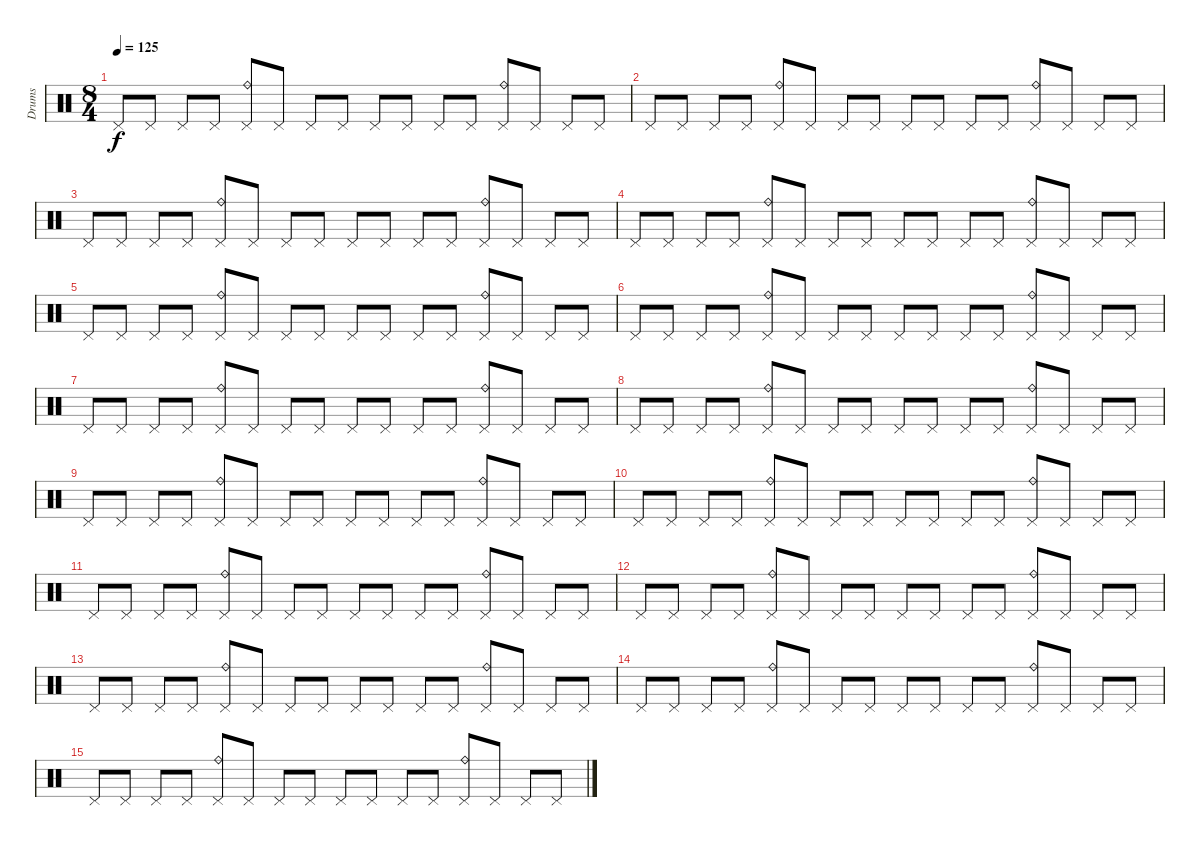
\track ("Drums" "Drums") {instrument percussion}
\staff {score}
\articulation defaults
\ts (8 4)
\tempo 125
\clef neutral
\ks c "Pedal Hi-Hat (hit)".8{dy f} "Pedal Hi-Hat (hit)".8 "Pedal Hi-Hat (hit)".8 "Pedal Hi-Hat (hit)".8
("Pedal Hi-Hat (hit)" "Ride (bell)").8 "Pedal Hi-Hat (hit)".8 "Pedal Hi-Hat (hit)".8 "Pedal Hi-Hat (hit)".8 "Pedal Hi-Hat (hit)".8 "Pedal Hi-Hat (hit)".8 "Pedal Hi-Hat (hit)".8 "Pedal Hi-Hat (hit)".8 ("Pedal Hi-Hat (hit)" "Ride (bell)").8 "Pedal Hi-Hat (hit)".8 "Pedal Hi-Hat (hit)".8 "Pedal Hi-Hat (hit)".8 |
"Pedal Hi-Hat (hit)".8 "Pedal Hi-Hat (hit)".8 "Pedal Hi-Hat (hit)".8 "Pedal Hi-Hat (hit)".8 ("Pedal Hi-Hat (hit)" "Ride (bell)").8 "Pedal Hi-Hat (hit)".8 "Pedal Hi-Hat (hit)".8 "Pedal Hi-Hat (hit)".8 "Pedal Hi-Hat (hit)".8 "Pedal Hi-Hat (hit)".8 "Pedal Hi-Hat (hit)".8 "Pedal Hi-Hat (hit)".8 ("Pedal Hi-Hat (hit)" "Ride (bell)").8 "Pedal Hi-Hat (hit)".8 "Pedal Hi-Hat (hit)".8 "Pedal Hi-Hat (hit)".8 |
"Pedal Hi-Hat (hit)".8 "Pedal Hi-Hat (hit)".8 "Pedal Hi-Hat (hit)".8 "Pedal Hi-Hat (hit)".8 ("Pedal Hi-Hat (hit)" "Ride (bell)").8 "Pedal Hi-Hat (hit)".8 "Pedal Hi-Hat (hit)".8 "Pedal Hi-Hat (hit)".8 "Pedal Hi-Hat (hit)".8 "Pedal Hi-Hat (hit)".8 "Pedal Hi-Hat (hit)".8 "Pedal Hi-Hat (hit)".8 ("Pedal Hi-Hat (hit)" "Ride (bell)").8 "Pedal Hi-Hat (hit)".8 "Pedal Hi-Hat (hit)".8 "Pedal Hi-Hat (hit)".8 |
"Pedal Hi-Hat (hit)".8 "Pedal Hi-Hat (hit)".8 "Pedal Hi-Hat (hit)".8 "Pedal Hi-Hat (hit)".8 ("Pedal Hi-Hat (hit)" "Ride (bell)").8 "Pedal Hi-Hat (hit)".8 "Pedal Hi-Hat (hit)".8 "Pedal Hi-Hat (hit)".8 "Pedal Hi-Hat (hit)".8 "Pedal Hi-Hat (hit)".8 "Pedal Hi-Hat (hit)".8 "Pedal Hi-Hat (hit)".8 ("Pedal Hi-Hat (hit)" "Ride (bell)").8 "Pedal Hi-Hat (hit)".8 "Pedal Hi-Hat (hit)".8 "Pedal Hi-Hat (hit)".8 |
"Pedal Hi-Hat (hit)".8 "Pedal Hi-Hat (hit)".8 "Pedal Hi-Hat (hit)".8 "Pedal Hi-Hat (hit)".8 ("Pedal Hi-Hat (hit)" "Ride (bell)").8 "Pedal Hi-Hat (hit)".8 "Pedal Hi-Hat (hit)".8 "Pedal Hi-Hat (hit)".8 "Pedal Hi-Hat (hit)".8 "Pedal Hi-Hat (hit)".8 "Pedal Hi-Hat (hit)".8 "Pedal Hi-Hat (hit)".8 ("Pedal Hi-Hat (hit)" "Ride (bell)").8 "Pedal Hi-Hat (hit)".8 "Pedal Hi-Hat (hit)".8 "Pedal Hi-Hat (hit)".8 |
"Pedal Hi-Hat (hit)".8 "Pedal Hi-Hat (hit)".8 "Pedal Hi-Hat (hit)".8 "Pedal Hi-Hat (hit)".8 ("Pedal Hi-Hat (hit)" "Ride (bell)").8 "Pedal Hi-Hat (hit)".8 "Pedal Hi-Hat (hit)".8 "Pedal Hi-Hat (hit)".8 "Pedal Hi-Hat (hit)".8 "Pedal Hi-Hat (hit)".8 "Pedal Hi-Hat (hit)".8 "Pedal Hi-Hat (hit)".8 ("Pedal Hi-Hat (hit)" "Ride (bell)").8 "Pedal Hi-Hat (hit)".8 "Pedal Hi-Hat (hit)".8 "Pedal Hi-Hat (hit)".8 |
"Pedal Hi-Hat (hit)".8 "Pedal Hi-Hat (hit)".8 "Pedal Hi-Hat (hit)".8 "Pedal Hi-Hat (hit)".8 ("Pedal Hi-Hat (hit)" "Ride (bell)").8 "Pedal Hi-Hat (hit)".8 "Pedal Hi-Hat (hit)".8 "Pedal Hi-Hat (hit)".8 "Pedal Hi-Hat (hit)".8 "Pedal Hi-Hat (hit)".8 "Pedal Hi-Hat (hit)".8 "Pedal Hi-Hat (hit)".8 ("Pedal Hi-Hat (hit)" "Ride (bell)").8 "Pedal Hi-Hat (hit)".8 "Pedal Hi-Hat (hit)".8 "Pedal Hi-Hat (hit)".8 |
"Pedal Hi-Hat (hit)".8 "Pedal Hi-Hat (hit)".8 "Pedal Hi-Hat (hit)".8 "Pedal Hi-Hat (hit)".8 ("Pedal Hi-Hat (hit)" "Ride (bell)").8 "Pedal Hi-Hat (hit)".8 "Pedal Hi-Hat (hit)".8 "Pedal Hi-Hat (hit)".8 "Pedal Hi-Hat (hit)".8 "Pedal Hi-Hat (hit)".8 "Pedal Hi-Hat (hit)".8 "Pedal Hi-Hat (hit)".8 ("Pedal Hi-Hat (hit)" "Ride (bell)").8 "Pedal Hi-Hat (hit)".8 "Pedal Hi-Hat (hit)".8 "Pedal Hi-Hat (hit)".8 |
"Pedal Hi-Hat (hit)".8 "Pedal Hi-Hat (hit)".8 "Pedal Hi-Hat (hit)".8 "Pedal Hi-Hat (hit)".8 ("Pedal Hi-Hat (hit)" "Ride (bell)").8 "Pedal Hi-Hat (hit)".8 "Pedal Hi-Hat (hit)".8 "Pedal Hi-Hat (hit)".8 "Pedal Hi-Hat (hit)".8 "Pedal Hi-Hat (hit)".8 "Pedal Hi-Hat (hit)".8 "Pedal Hi-Hat (hit)".8 ("Pedal Hi-Hat (hit)" "Ride (bell)").8 "Pedal Hi-Hat (hit)".8 "Pedal Hi-Hat (hit)".8 "Pedal Hi-Hat (hit)".8 |
"Pedal Hi-Hat (hit)".8 "Pedal Hi-Hat (hit)".8 "Pedal Hi-Hat (hit)".8 "Pedal Hi-Hat (hit)".8 ("Pedal Hi-Hat (hit)" "Ride (bell)").8 "Pedal Hi-Hat (hit)".8 "Pedal Hi-Hat (hit)".8 "Pedal Hi-Hat (hit)".8 "Pedal Hi-Hat (hit)".8 "Pedal Hi-Hat (hit)".8 "Pedal Hi-Hat (hit)".8 "Pedal Hi-Hat (hit)".8 ("Pedal Hi-Hat (hit)" "Ride (bell)").8 "Pedal Hi-Hat (hit)".8 "Pedal Hi-Hat (hit)".8 "Pedal Hi-Hat (hit)".8 |
"Pedal Hi-Hat (hit)".8 "Pedal Hi-Hat (hit)".8 "Pedal Hi-Hat (hit)".8 "Pedal Hi-Hat (hit)".8 ("Pedal Hi-Hat (hit)" "Ride (bell)").8 "Pedal Hi-Hat (hit)".8 "Pedal Hi-Hat (hit)".8 "Pedal Hi-Hat (hit)".8 "Pedal Hi-Hat (hit)".8 "Pedal Hi-Hat (hit)".8 "Pedal Hi-Hat (hit)".8 "Pedal Hi-Hat (hit)".8 ("Pedal Hi-Hat (hit)" "Ride (bell)").8 "Pedal Hi-Hat (hit)".8 "Pedal Hi-Hat (hit)".8 "Pedal Hi-Hat (hit)".8 |
"Pedal Hi-Hat (hit)".8 "Pedal Hi-Hat (hit)".8 "Pedal Hi-Hat (hit)".8 "Pedal Hi-Hat (hit)".8 ("Pedal Hi-Hat (hit)" "Ride (bell)").8 "Pedal Hi-Hat (hit)".8 "Pedal Hi-Hat (hit)".8 "Pedal Hi-Hat (hit)".8 "Pedal Hi-Hat (hit)".8 "Pedal Hi-Hat (hit)".8 "Pedal Hi-Hat (hit)".8 "Pedal Hi-Hat (hit)".8 ("Pedal Hi-Hat (hit)" "Ride (bell)").8 "Pedal Hi-Hat (hit)".8 "Pedal Hi-Hat (hit)".8 "Pedal Hi-Hat (hit)".8 |
"Pedal Hi-Hat (hit)".8 "Pedal Hi-Hat (hit)".8 "Pedal Hi-Hat (hit)".8 "Pedal Hi-Hat (hit)".8 ("Pedal Hi-Hat (hit)" "Ride (bell)").8 "Pedal Hi-Hat (hit)".8 "Pedal Hi-Hat (hit)".8 "Pedal Hi-Hat (hit)".8 "Pedal Hi-Hat (hit)".8 "Pedal Hi-Hat (hit)".8 "Pedal Hi-Hat (hit)".8 "Pedal Hi-Hat (hit)".8 ("Pedal Hi-Hat (hit)" "Ride (bell)").8 "Pedal Hi-Hat (hit)".8 "Pedal Hi-Hat (hit)".8 "Pedal Hi-Hat (hit)".8 |
"Pedal Hi-Hat (hit)".8 "Pedal Hi-Hat (hit)".8 "Pedal Hi-Hat (hit)".8 "Pedal Hi-Hat (hit)".8 ("Pedal Hi-Hat (hit)" "Ride (bell)").8 "Pedal Hi-Hat (hit)".8 "Pedal Hi-Hat (hit)".8 "Pedal Hi-Hat (hit)".8 "Pedal Hi-Hat (hit)".8 "Pedal Hi-Hat (hit)".8 "Pedal Hi-Hat (hit)".8 "Pedal Hi-Hat (hit)".8 ("Pedal Hi-Hat (hit)" "Ride (bell)").8 "Pedal Hi-Hat (hit)".8 "Pedal Hi-Hat (hit)".8 "Pedal Hi-Hat (hit)".8 |
"Pedal Hi-Hat (hit)".8 "Pedal Hi-Hat (hit)".8 "Pedal Hi-Hat (hit)".8 "Pedal Hi-Hat (hit)".8 ("Pedal Hi-Hat (hit)" "Ride (bell)").8 "Pedal Hi-Hat (hit)".8 "Pedal Hi-Hat (hit)".8 "Pedal Hi-Hat (hit)".8 "Pedal Hi-Hat (hit)".8 "Pedal Hi-Hat (hit)".8 "Pedal Hi-Hat (hit)".8 "Pedal Hi-Hat (hit)".8 ("Pedal Hi-Hat (hit)" "Ride (bell)").8 "Pedal Hi-Hat (hit)".8 "Pedal Hi-Hat (hit)".8 "Pedal Hi-Hat (hit)".8
